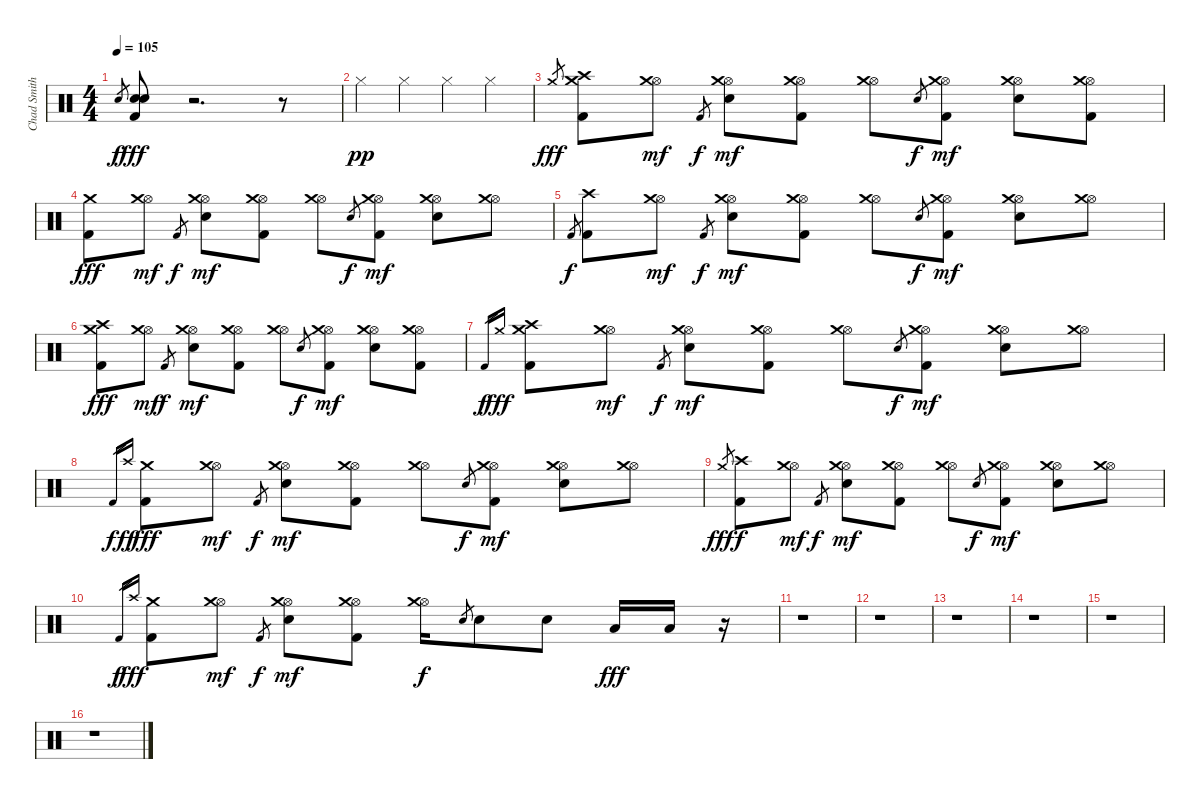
\track ("Chad Smith" "Chad Smith") {instrument percussion}
\staff {score}
\articulation defaults
\ts (4 4)
\tempo 105
\clef neutral
\ks c "Electric Snare (hit)".8{gr dy f}
("Kick (hit) 2" "Electric Snare (hit)" "Electric Snare (hit)").8{dy fff} r.2{d} r.8 |
"Hi-Hat (closed)".4{dy pp} "Hi-Hat (closed)".4 "Hi-Hat (closed)".4 "Hi-Hat (closed)".4 |
"Crash medium (hit)".8{gr dy fff} ("Kick (hit) 2" "Crash medium (hit)" "Crash high (hit)").8 ("Hi-Hat (open)" "Crash medium (hit)").8{dy mf} "Kick (hit) 2".8{gr dy f} ("Hi-Hat (open)" "Electric Snare (hit)" "Crash medium (hit)").8{dy mf} ("Hi-Hat (open)" "Kick (hit) 2" "Crash medium (hit)").8 ("Hi-Hat (open)" "Crash medium (hit)").8 "Electric Snare (hit)".8{gr dy f} ("Hi-Hat (open)" "Kick (hit) 2" "Crash medium (hit)").8{dy mf} ("Hi-Hat (open)" "Electric Snare (hit)" "Crash medium (hit)").8 ("Hi-Hat (open)" "Kick (hit) 2" "Crash medium (hit)").8 |
("Kick (hit) 2" "Crash medium (hit)").8{dy fff} ("Hi-Hat (open)" "Crash medium (hit)").8{dy mf} "Kick (hit) 2".8{gr dy f} ("Hi-Hat (open)" "Electric Snare (hit)" "Crash medium (hit)").8{dy mf} ("Hi-Hat (open)" "Kick (hit) 2" "Crash medium (hit)").8 ("Hi-Hat (open)" "Crash medium (hit)").8 "Electric Snare (hit)".8{gr dy f} ("Hi-Hat (open)" "Kick (hit) 2" "Crash medium (hit)").8{dy mf} ("Hi-Hat (open)" "Electric Snare (hit)" "Crash medium (hit)").8 ("Hi-Hat (open)" "Crash medium (hit)").8 |
"Kick (hit) 2".8{gr dy f} ("Kick (hit) 2" "Crash high (hit)").8 ("Hi-Hat (open)" "Crash medium (hit)").8{dy mf} "Kick (hit) 2".8{gr dy f} ("Hi-Hat (open)" "Electric Snare (hit)" "Crash medium (hit)").8{dy mf} ("Hi-Hat (open)" "Kick (hit) 2" "Crash medium (hit)").8 ("Hi-Hat (open)" "Crash medium (hit)").8 "Electric Snare (hit)".8{gr dy f} ("Hi-Hat (open)" "Kick (hit) 2" "Crash medium (hit)").8{dy mf} ("Hi-Hat (open)" "Electric Snare (hit)" "Crash medium (hit)").8 ("Hi-Hat (open)" "Crash medium (hit)").8 |
("Kick (hit) 2" "Crash medium (hit)" "Crash high (hit)").8{dy fff} ("Hi-Hat (open)" "Crash medium (hit)").8{dy mf} "Kick (hit) 2".8{gr dy f} ("Hi-Hat (open)" "Electric Snare (hit)" "Crash medium (hit)").8{dy mf} ("Hi-Hat (open)" "Kick (hit) 2" "Crash medium (hit)").8 ("Hi-Hat (open)" "Crash medium (hit)").8 "Electric Snare (hit)".8{gr dy f} ("Hi-Hat (open)" "Kick (hit) 2" "Crash medium (hit)").8{dy mf} ("Hi-Hat (open)" "Electric Snare (hit)" "Crash medium (hit)").8 ("Hi-Hat (open)" "Kick (hit) 2" "Crash medium (hit)").8 |
"Kick (hit) 2".16{gr dy f} "Crash medium (hit)".16{gr dy fff} ("Kick (hit) 2" "Crash medium (hit)" "Crash high (hit)").8 ("Hi-Hat (open)" "Crash medium (hit)").8{dy mf} "Kick (hit) 2".8{gr dy f} ("Hi-Hat (open)" "Electric Snare (hit)" "Crash medium (hit)").8{dy mf} ("Hi-Hat (open)" "Kick (hit) 2" "Crash medium (hit)").8 ("Hi-Hat (open)" "Crash medium (hit)").8 "Electric Snare (hit)".8{gr dy f} ("Hi-Hat (open)" "Kick (hit) 2" "Crash medium (hit)").8{dy mf} ("Hi-Hat (open)" "Electric Snare (hit)" "Crash medium (hit)").8 ("Hi-Hat (open)" "Crash medium (hit)").8 |
"Kick (hit) 2".16{gr dy f} "Crash high (hit)".16{gr dy ff} ("Kick (hit) 2" "Crash medium (hit)").8{dy fff} ("Hi-Hat (open)" "Crash medium (hit)").8{dy mf} "Kick (hit) 2".8{gr dy f} ("Hi-Hat (open)" "Electric Snare (hit)" "Crash medium (hit)").8{dy mf} ("Hi-Hat (open)" "Kick (hit) 2" "Crash medium (hit)").8 ("Hi-Hat (open)" "Crash medium (hit)").8 "Electric Snare (hit)".8{gr dy f} ("Hi-Hat (open)" "Kick (hit) 2" "Crash medium (hit)").8{dy mf} ("Hi-Hat (open)" "Electric Snare (hit)" "Crash medium (hit)").8 ("Hi-Hat (open)" "Crash medium (hit)").8 |
"Crash medium (hit)".8{gr dy fff} ("Kick (hit) 2" "Crash high (hit)").8{dy f} ("Hi-Hat (open)" "Crash medium (hit)").8{dy mf} "Kick (hit) 2".8{gr dy f} ("Hi-Hat (open)" "Electric Snare (hit)" "Crash medium (hit)").8{dy mf} ("Hi-Hat (open)" "Kick (hit) 2" "Crash medium (hit)").8 ("Hi-Hat (open)" "Crash medium (hit)").8 "Electric Snare (hit)".8{gr dy f} ("Hi-Hat (open)" "Kick (hit) 2" "Crash medium (hit)").8{dy mf} ("Hi-Hat (open)" "Electric Snare (hit)" "Crash medium (hit)").8 ("Hi-Hat (open)" "Crash medium (hit)").8 |
"Kick (hit) 2".16{gr dy f} "Crash high (hit)".16{gr dy fff} ("Kick (hit) 2" "Crash medium (hit)").8 ("Hi-Hat (open)" "Crash medium (hit)").8{dy mf} "Kick (hit) 2".8{gr dy f} ("Hi-Hat (open)" "Electric Snare (hit)" "Crash medium (hit)").8{dy mf} ("Hi-Hat (open)" "Kick (hit) 2" "Crash medium (hit)").8 ("Hi-Hat (open)" "Crash medium (hit)").16{dy f} "Electric Snare (hit)".8{gr} "Electric Snare (hit)".8 "Electric Snare (hit)".8 "Low Tom (hit)".16{dy fff} "Low Tom (hit)".16 r.16 |
r.1 |
r.1 |
r.1 |
r.1 |
r.1 |
r.1
